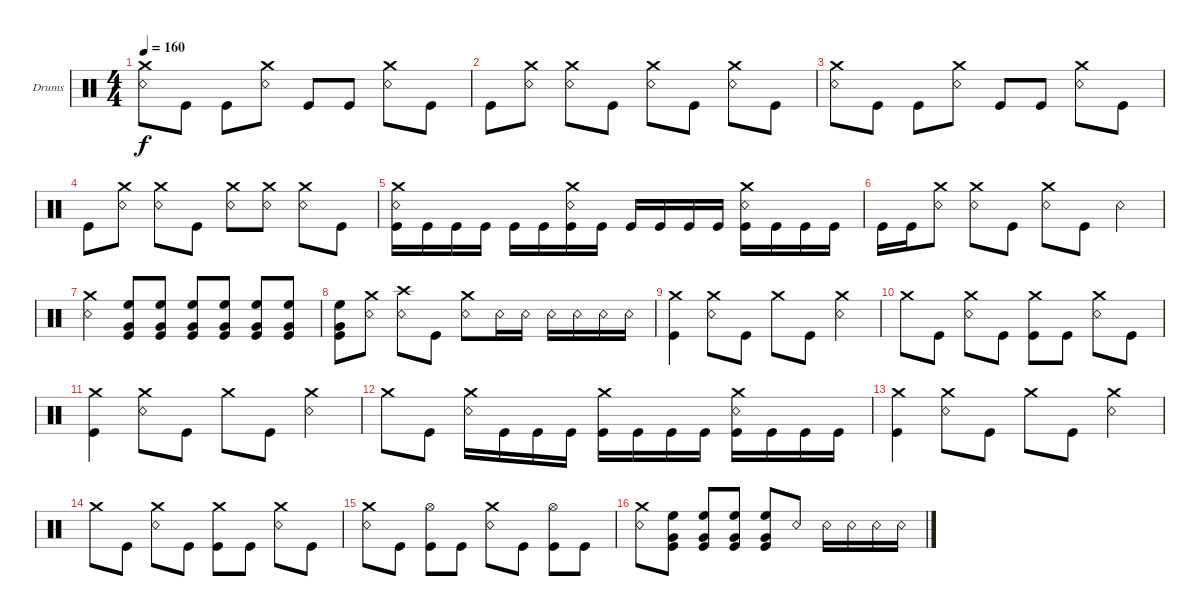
\bracketExtendMode groupsimilarinstruments
\firstSystemTrackNameOrientation horizontal
\otherSystemsTrackNameOrientation horizontal
\track ("Drumkit" "Drums") {instrument percussion}
\staff {score}
\articulation defaults
\ts (4 4)
\tempo 160
\clef neutral
\scale
0.333333
\ks c
("Crash medium (hit)" "Snare (rim shot)").8{dy f} "Kick (hit)".8 "Kick (hit)".8 ("Crash medium (hit)" "Snare (rim shot)").8 "Kick (hit)".8 "Kick (hit)".8 ("Crash medium (hit)" "Snare (rim shot)").8 "Kick (hit)".8 |
\scale
0.333333 "Kick (hit)".8 ("Crash medium (hit)" "Snare (rim shot)").8 ("Crash medium (hit)" "Snare (rim shot)").8 "Kick (hit)".8 ("Crash medium (hit)" "Snare (rim shot)").8 "Kick (hit)".8 ("Crash medium (hit)" "Snare (rim shot)").8 "Kick (hit)".8 |
\scale
0.333333 ("Crash medium (hit)" "Snare (rim shot)").8 "Kick (hit)".8 "Kick (hit)".8 ("Crash medium (hit)" "Snare (rim shot)").8 "Kick (hit)".8 "Kick (hit)".8 ("Crash medium (hit)" "Snare (rim shot)").8 "Kick (hit)".8 |
\scale
0.333333 "Kick (hit)".8 ("Crash medium (hit)" "Snare (rim shot)").8 ("Crash medium (hit)" "Snare (rim shot)").8 "Kick (hit)".8 ("Crash medium (hit)" "Snare (rim shot)").8 ("Crash medium (hit)" "Snare (rim shot)").8 ("Crash medium (hit)" "Snare (rim shot)").8 "Kick (hit)".8 |
\scale
0.333333 ("Crash medium (hit)" "Snare (rim shot)" "Kick (hit)").16 "Kick (hit)".16 "Kick (hit)".16 "Kick (hit)".16 "Kick (hit)".16 "Kick (hit)".16 ("Crash medium (hit)" "Snare (rim shot)" "Kick (hit)").16 "Kick (hit)".16 "Kick (hit)".16 "Kick (hit)".16 "Kick (hit)".16 "Kick (hit)".16 ("Crash medium (hit)" "Snare (rim shot)" "Kick (hit)").16 "Kick (hit)".16 "Kick (hit)".16 "Kick (hit)".16 |
\scale
0.333333 "Kick (hit)".16 "Kick (hit)".16 ("Crash medium (hit)" "Snare (rim shot)").8 ("Crash medium (hit)" "Snare (rim shot)").8 "Kick (hit)".8 ("Crash medium (hit)" "Snare (rim shot)").8 "Kick (hit)".8 "Snare (rim shot)".4 |
\scale
0.333333 ("Crash medium (hit)" "Snare (rim shot)").4 ("High Floor Tom (hit)" "Very Low Tom (hit)" "Kick (hit)").8 ("High Floor Tom (hit)" "Very Low Tom (hit)" "Kick (hit)").8 ("High Floor Tom (hit)" "Very Low Tom (hit)" "Kick (hit)").8 ("High Floor Tom (hit)" "Very Low Tom (hit)" "Kick (hit)").8 ("High Floor Tom (hit)" "Very Low Tom (hit)" "Kick (hit)").8 ("High Floor Tom (hit)" "Very Low Tom (hit)" "Kick (hit)").8 |
\scale
0.333333 ("High Floor Tom (hit)" "Very Low Tom (hit)" "Kick (hit)").8 ("Crash medium (hit)" "Snare (rim shot)").8 ("Crash high (hit)" "Snare (rim shot)").8 "Kick (hit)".8 ("Crash medium (hit)" "Snare (rim shot)").8 "Snare (rim shot)".16 "Snare (rim shot)".16 "Snare (rim shot)".16 "Snare (rim shot)".16 "Snare (rim shot)".16 "Snare (rim shot)".16 |
\scale
0.333333 ("Crash medium (hit)" "Kick (hit)").4 ("Crash medium (hit)" "Snare (rim shot)").8 "Kick (hit)".8 "Crash medium (hit)".8 "Kick (hit)".8 ("Crash medium (hit)" "Snare (rim shot)").4 |
\scale
0.333333 "Crash medium (hit)".8 "Kick (hit)".8 ("Crash medium (hit)" "Snare (rim shot)").8 "Kick (hit)".8 ("Crash medium (hit)" "Kick (hit)").8 "Kick (hit)".8 ("Crash medium (hit)" "Snare (rim shot)").8 "Kick (hit)".8 |
\scale
0.333333 ("Crash medium (hit)" "Kick (hit)").4 ("Crash medium (hit)" "Snare (rim shot)").8 "Kick (hit)".8 "Crash medium (hit)".8 "Kick (hit)".8 ("Crash medium (hit)" "Snare (rim shot)").4 |
\scale
0.333333 "Crash medium (hit)".8 "Kick (hit)".8 ("Crash medium (hit)" "Snare (rim shot)").16 "Kick (hit)".16 "Kick (hit)".16 "Kick (hit)".16 ("Crash medium (hit)" "Kick (hit)").16 "Kick (hit)".16 "Kick (hit)".16 "Kick (hit)".16 ("Crash medium (hit)" "Snare (rim shot)" "Kick (hit)").16 "Kick (hit)".16 "Kick (hit)".16 "Kick (hit)".16 |
\scale
0.333333 ("Crash medium (hit)" "Kick (hit)").4 ("Crash medium (hit)" "Snare (rim shot)").8 "Kick (hit)".8 "Crash medium (hit)".8 "Kick (hit)".8 ("Crash medium (hit)" "Snare (rim shot)").4 |
\scale
0.333333 "Crash medium (hit)".8 "Kick (hit)".8 ("Crash medium (hit)" "Snare (rim shot)").8 "Kick (hit)".8 ("Crash medium (hit)" "Kick (hit)").8 "Kick (hit)".8 ("Crash medium (hit)" "Snare (rim shot)").8 "Kick (hit)".8 |
\scale
0.333333 ("Crash medium (hit)" "Snare (rim shot)").8 "Kick (hit)".8 ("Hi-Hat (open)" "Kick (hit)").8 "Kick (hit)".8 ("Crash medium (hit)" "Snare (rim shot)").8 "Kick (hit)".8 ("Hi-Hat (open)" "Kick (hit)").8 "Kick (hit)".8 |
\scale
0.333333 ("Crash medium (hit)" "Snare (rim shot)").8 ("High Floor Tom (hit)" "Very Low Tom (hit)" "Kick (hit)").8 ("High Floor Tom (hit)" "Very Low Tom (hit)" "Kick (hit)").8 ("High Floor Tom (hit)" "Very Low Tom (hit)" "Kick (hit)").8 ("High Floor Tom (hit)" "Very Low Tom (hit)" "Kick (hit)").8 "Snare (rim shot)".8 "Snare (rim shot)".16 "Snare (rim shot)".16 "Snare (rim shot)".16 "Snare (rim shot)".16
